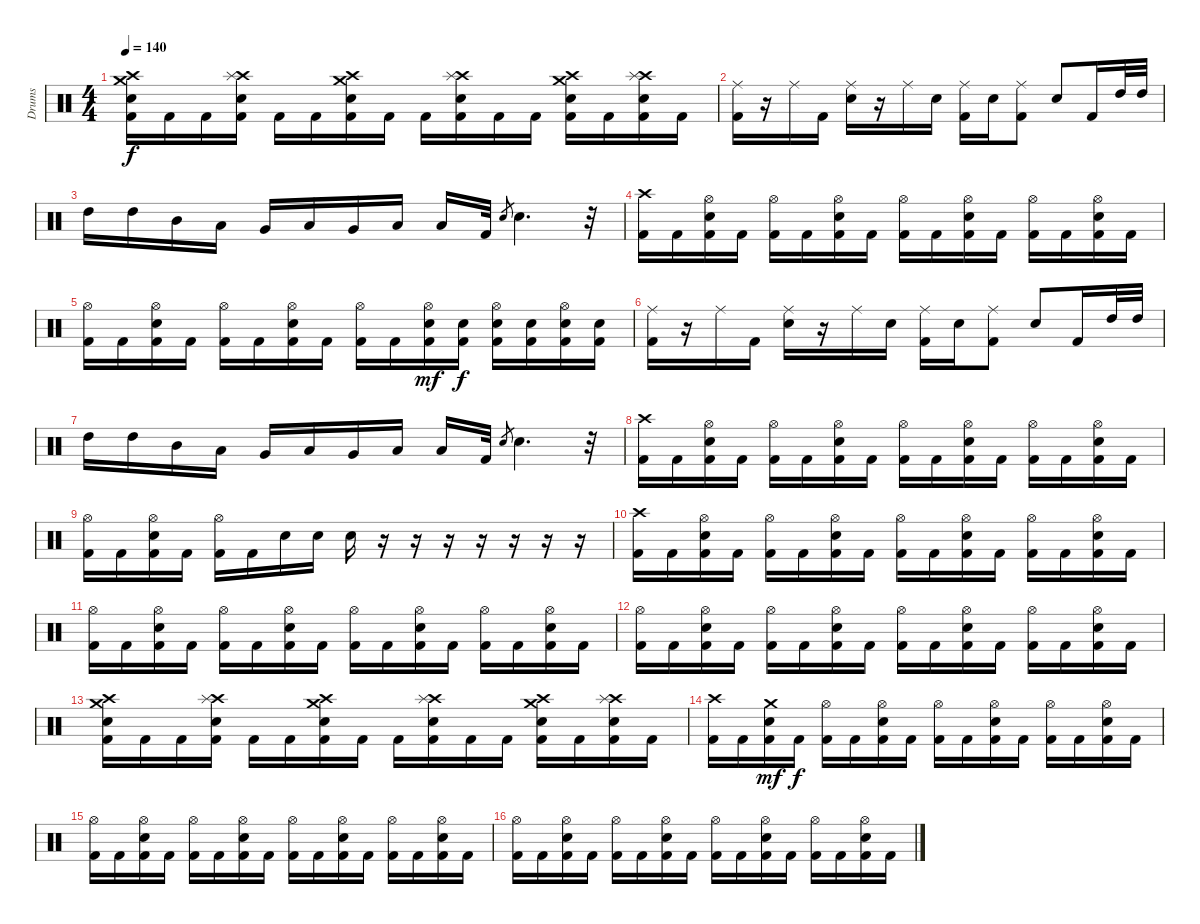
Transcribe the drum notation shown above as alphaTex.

\track ("Drums" "Drums") {instrument percussion}
\staff {score}
\articulation defaults
\ts (4 4)
\tempo 140
\clef neutral
\ks c
("Crash high (hit)" "Crash medium (hit)" "Electric Snare (hit)" "Kick (hit) 2").16{dy f} "Kick (hit) 2".16 "Kick (hit) 2".16 ("Crash high (hit)" "Splash (hit)" "Electric Snare (hit)" "Kick (hit) 2").16 "Kick (hit) 2".16 "Kick (hit) 2".16 ("Crash high (hit)" "Crash medium (hit)" "Electric Snare (hit)" "Kick (hit) 2").16 "Kick (hit) 2".16 "Kick (hit) 2".16 ("Crash high (hit)" "Splash (hit)" "Electric Snare (hit)" "Kick (hit) 2").16 "Kick (hit) 2".16 "Kick (hit) 2".16 ("Crash high (hit)" "Crash medium (hit)" "Electric Snare (hit)" "Kick (hit) 2").16 "Kick (hit) 2".16 ("Crash high (hit)" "Splash (hit)" "Electric Snare (hit)" "Kick (hit) 2").16 "Kick (hit) 2".16 |
("Ride (middle)" "Kick (hit) 2").16 r.16 "Ride (middle)".16 "Kick (hit) 2".16 ("Ride (middle)" "Electric Snare (hit)").16 r.16 "Ride (middle)".16 "Electric Snare (hit)".16 ("Ride (middle)" "Kick (hit) 2").16 "Electric Snare (hit)".16 ("Ride (middle)" "Kick (hit) 2").8 "Electric Snare (hit)".8 "Kick (hit) 2".16 "High Tom (hit)".32 "High Tom (hit)".32 |
"High Tom (hit)".16 "High Tom (hit)".16 "Mid Tom (hit)".16 "Low Tom (hit)".16 "Very Low Tom (hit)".16 "Low Tom (hit)".16 "Very Low Tom (hit)".16 "Low Floor Tom (hit)".16 "Low Floor Tom (hit)".16 "Kick (hit) 2".32 "Electric Snare (hit)".8{gr} "Electric Snare (hit)".4{d} r.32 |
("Crash high (hit)" "Kick (hit) 2").16 "Kick (hit) 2".16 ("Hi-Hat (open)" "Electric Snare (hit)" "Kick (hit) 2").16 "Kick (hit) 2".16 ("Hi-Hat (open)" "Kick (hit) 2").16 "Kick (hit) 2".16 ("Hi-Hat (open)" "Electric Snare (hit)" "Kick (hit) 2").16 "Kick (hit) 2".16 ("Hi-Hat (open)" "Kick (hit) 2").16 "Kick (hit) 2".16 ("Hi-Hat (open)" "Electric Snare (hit)" "Kick (hit) 2").16 "Kick (hit) 2".16 ("Hi-Hat (open)" "Kick (hit) 2").16 "Kick (hit) 2".16 ("Hi-Hat (open)" "Electric Snare (hit)" "Kick (hit) 2").16 "Kick (hit) 2".16 |
("Hi-Hat (open)" "Kick (hit) 2").16 "Kick (hit) 2".16 ("Hi-Hat (open)" "Electric Snare (hit)" "Kick (hit) 2").16 "Kick (hit) 2".16 ("Hi-Hat (open)" "Kick (hit) 2").16 "Kick (hit) 2".16 ("Hi-Hat (open)" "Electric Snare (hit)" "Kick (hit) 2").16 "Kick (hit) 2".16 ("Hi-Hat (open)" "Kick (hit) 2").16 "Kick (hit) 2".16 ("Hi-Hat (open)" "Electric Snare (hit)" "Kick (hit) 2").16{dy mf} ("Electric Snare (hit)" "Kick (hit) 2").16{dy f} ("Hi-Hat (open)" "Electric Snare (hit)" "Kick (hit) 2").16 ("Electric Snare (hit)" "Kick (hit) 2").16 ("Hi-Hat (open)" "Electric Snare (hit)" "Kick (hit) 2").16 ("Electric Snare (hit)" "Kick (hit) 2").16 |
("Ride (middle)" "Kick (hit) 2").16 r.16 "Ride (middle)".16 "Kick (hit) 2".16 ("Ride (middle)" "Electric Snare (hit)").16 r.16 "Ride (middle)".16 "Electric Snare (hit)".16 ("Ride (middle)" "Kick (hit) 2").16 "Electric Snare (hit)".16 ("Ride (middle)" "Kick (hit) 2").8 "Electric Snare (hit)".8 "Kick (hit) 2".16 "High Tom (hit)".32 "High Tom (hit)".32 |
"High Tom (hit)".16 "High Tom (hit)".16 "Mid Tom (hit)".16 "Low Tom (hit)".16 "Very Low Tom (hit)".16 "Low Tom (hit)".16 "Very Low Tom (hit)".16 "Low Floor Tom (hit)".16 "Low Floor Tom (hit)".16 "Kick (hit) 2".32 "Electric Snare (hit)".8{gr} "Electric Snare (hit)".4{d} r.32 |
("Crash high (hit)" "Kick (hit) 2").16 "Kick (hit) 2".16 ("Hi-Hat (open)" "Electric Snare (hit)" "Kick (hit) 2").16 "Kick (hit) 2".16 ("Hi-Hat (open)" "Kick (hit) 2").16 "Kick (hit) 2".16 ("Hi-Hat (open)" "Electric Snare (hit)" "Kick (hit) 2").16 "Kick (hit) 2".16 ("Hi-Hat (open)" "Kick (hit) 2").16 "Kick (hit) 2".16 ("Hi-Hat (open)" "Electric Snare (hit)" "Kick (hit) 2").16 "Kick (hit) 2".16 ("Hi-Hat (open)" "Kick (hit) 2").16 "Kick (hit) 2".16 ("Hi-Hat (open)" "Electric Snare (hit)" "Kick (hit) 2").16 "Kick (hit) 2".16 |
("Hi-Hat (open)" "Kick (hit) 2").16 "Kick (hit) 2".16 ("Hi-Hat (open)" "Electric Snare (hit)" "Kick (hit) 2").16 "Kick (hit) 2".16 ("Hi-Hat (open)" "Kick (hit) 2").16 "Kick (hit) 2".16 "Electric Snare (hit)".16 "Electric Snare (hit)".16 "Electric Snare (hit)".16 r.16 r.16 r.16 r.16 r.16 r.16 r.16 |
("Crash high (hit)" "Kick (hit) 2").16 "Kick (hit) 2".16 ("Hi-Hat (open)" "Electric Snare (hit)" "Kick (hit) 2").16 "Kick (hit) 2".16 ("Hi-Hat (open)" "Kick (hit) 2").16 "Kick (hit) 2".16 ("Hi-Hat (open)" "Electric Snare (hit)" "Kick (hit) 2").16 "Kick (hit) 2".16 ("Hi-Hat (open)" "Kick (hit) 2").16 "Kick (hit) 2".16 ("Hi-Hat (open)" "Electric Snare (hit)" "Kick (hit) 2").16 "Kick (hit) 2".16 ("Hi-Hat (open)" "Kick (hit) 2").16 "Kick (hit) 2".16 ("Hi-Hat (open)" "Electric Snare (hit)" "Kick (hit) 2").16 "Kick (hit) 2".16 |
("Hi-Hat (open)" "Kick (hit) 2").16 "Kick (hit) 2".16 ("Hi-Hat (open)" "Electric Snare (hit)" "Kick (hit) 2").16 "Kick (hit) 2".16 ("Hi-Hat (open)" "Kick (hit) 2").16 "Kick (hit) 2".16 ("Hi-Hat (open)" "Electric Snare (hit)" "Kick (hit) 2").16 "Kick (hit) 2".16 ("Hi-Hat (open)" "Kick (hit) 2").16 "Kick (hit) 2".16 ("Hi-Hat (open)" "Electric Snare (hit)" "Kick (hit) 2").16 "Kick (hit) 2".16 ("Hi-Hat (open)" "Kick (hit) 2").16 "Kick (hit) 2".16 ("Hi-Hat (open)" "Electric Snare (hit)" "Kick (hit) 2").16 "Kick (hit) 2".16 |
("Hi-Hat (open)" "Kick (hit) 2").16 "Kick (hit) 2".16 ("Hi-Hat (open)" "Electric Snare (hit)" "Kick (hit) 2").16 "Kick (hit) 2".16 ("Hi-Hat (open)" "Kick (hit) 2").16 "Kick (hit) 2".16 ("Hi-Hat (open)" "Electric Snare (hit)" "Kick (hit) 2").16 "Kick (hit) 2".16 ("Hi-Hat (open)" "Kick (hit) 2").16 "Kick (hit) 2".16 ("Hi-Hat (open)" "Electric Snare (hit)" "Kick (hit) 2").16 "Kick (hit) 2".16 ("Hi-Hat (open)" "Kick (hit) 2").16 "Kick (hit) 2".16 ("Hi-Hat (open)" "Electric Snare (hit)" "Kick (hit) 2").16 "Kick (hit) 2".16 |
("Crash high (hit)" "Crash medium (hit)" "Electric Snare (hit)" "Kick (hit) 2").16 "Kick (hit) 2".16 "Kick (hit) 2".16 ("Crash high (hit)" "Splash (hit)" "Electric Snare (hit)" "Kick (hit) 2").16 "Kick (hit) 2".16 "Kick (hit) 2".16 ("Crash high (hit)" "Crash medium (hit)" "Electric Snare (hit)" "Kick (hit) 2").16 "Kick (hit) 2".16 "Kick (hit) 2".16 ("Crash high (hit)" "Splash (hit)" "Electric Snare (hit)" "Kick (hit) 2").16 "Kick (hit) 2".16 "Kick (hit) 2".16 ("Crash high (hit)" "Crash medium (hit)" "Electric Snare (hit)" "Kick (hit) 2").16 "Kick (hit) 2".16 ("Crash high (hit)" "Splash (hit)" "Electric Snare (hit)" "Kick (hit) 2").16 "Kick (hit) 2".16 |
("Crash high (hit)" "Kick (hit) 2").16 "Kick (hit) 2".16 ("Crash medium (hit)" "Electric Snare (hit)" "Kick (hit) 2").16{dy mf} "Kick (hit) 2".16{dy f} ("Hi-Hat (open)" "Kick (hit) 2").16 "Kick (hit) 2".16 ("Hi-Hat (open)" "Electric Snare (hit)" "Kick (hit) 2").16 "Kick (hit) 2".16 ("Hi-Hat (open)" "Kick (hit) 2").16 "Kick (hit) 2".16 ("Hi-Hat (open)" "Electric Snare (hit)" "Kick (hit) 2").16 "Kick (hit) 2".16 ("Hi-Hat (open)" "Kick (hit) 2").16 "Kick (hit) 2".16 ("Hi-Hat (open)" "Electric Snare (hit)" "Kick (hit) 2").16 "Kick (hit) 2".16 |
("Hi-Hat (open)" "Kick (hit) 2").16 "Kick (hit) 2".16 ("Hi-Hat (open)" "Electric Snare (hit)" "Kick (hit) 2").16 "Kick (hit) 2".16 ("Hi-Hat (open)" "Kick (hit) 2").16 "Kick (hit) 2".16 ("Hi-Hat (open)" "Electric Snare (hit)" "Kick (hit) 2").16 "Kick (hit) 2".16 ("Hi-Hat (open)" "Kick (hit) 2").16 "Kick (hit) 2".16 ("Hi-Hat (open)" "Electric Snare (hit)" "Kick (hit) 2").16 "Kick (hit) 2".16 ("Hi-Hat (open)" "Kick (hit) 2").16 "Kick (hit) 2".16 ("Hi-Hat (open)" "Electric Snare (hit)" "Kick (hit) 2").16 "Kick (hit) 2".16 |
("Hi-Hat (open)" "Kick (hit) 2").16 "Kick (hit) 2".16 ("Hi-Hat (open)" "Electric Snare (hit)" "Kick (hit) 2").16 "Kick (hit) 2".16 ("Hi-Hat (open)" "Kick (hit) 2").16 "Kick (hit) 2".16 ("Hi-Hat (open)" "Electric Snare (hit)" "Kick (hit) 2").16 "Kick (hit) 2".16 ("Hi-Hat (open)" "Kick (hit) 2").16 "Kick (hit) 2".16 ("Hi-Hat (open)" "Electric Snare (hit)" "Kick (hit) 2").16 "Kick (hit) 2".16 ("Hi-Hat (open)" "Kick (hit) 2").16 "Kick (hit) 2".16 ("Hi-Hat (open)" "Electric Snare (hit)" "Kick (hit) 2").16 "Kick (hit) 2".16
